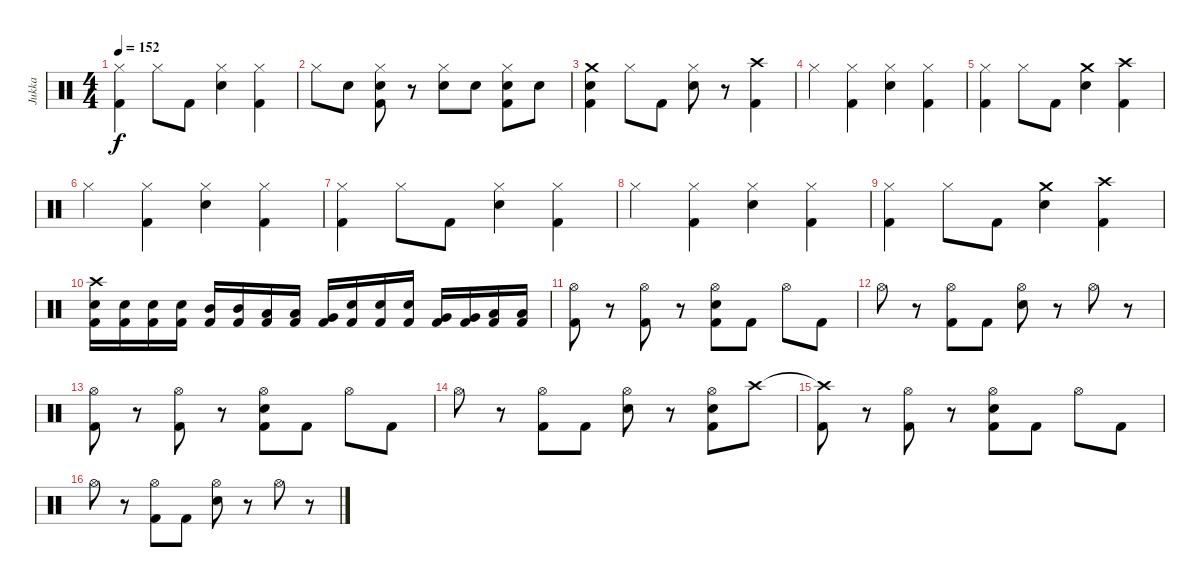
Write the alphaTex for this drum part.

\track ("Jukka" "Jukka") {instrument percussion}
\staff {score}
\articulation defaults
\ts (4 4)
\tempo 152
\clef neutral
\ks c
("Hi-Hat (closed)" "Kick (hit) 2").4{dy f} "Hi-Hat (closed)".8 "Kick (hit) 2".8 ("Hi-Hat (closed)" "Electric Snare (hit)").4 ("Hi-Hat (closed)" "Kick (hit) 2").4 |
"Hi-Hat (closed)".8 "Electric Snare (hit)".8 ("Hi-Hat (closed)" "Electric Snare (hit)" "Kick (hit) 2").8 r.8 ("Hi-Hat (closed)" "Electric Snare (hit)").8 "Electric Snare (hit)".8 ("Hi-Hat (closed)" "Electric Snare (hit)" "Kick (hit) 2").8 "Electric Snare (hit)".8 |
("Crash medium (hit)" "Electric Snare (hit)" "Kick (hit) 2").4 "Hi-Hat (closed)".8 "Kick (hit) 2".8 ("Hi-Hat (closed)" "Electric Snare (hit)").8 r.8 ("Crash high (hit)" "Kick (hit) 2").4 |
"Hi-Hat (closed)".4 ("Hi-Hat (closed)" "Kick (hit) 2").4 ("Hi-Hat (closed)" "Electric Snare (hit)").4 ("Hi-Hat (closed)" "Kick (hit) 2").4 |
("Hi-Hat (closed)" "Kick (hit) 2").4 "Hi-Hat (closed)".8 "Kick (hit) 2".8 ("Crash medium (hit)" "Electric Snare (hit)").4 ("Crash high (hit)" "Kick (hit) 2").4 |
"Hi-Hat (closed)".4 ("Hi-Hat (closed)" "Kick (hit) 2").4 ("Hi-Hat (closed)" "Electric Snare (hit)").4 ("Hi-Hat (closed)" "Kick (hit) 2").4 |
("Hi-Hat (closed)" "Kick (hit) 2").4 "Hi-Hat (closed)".8 "Kick (hit) 2".8 ("Hi-Hat (closed)" "Electric Snare (hit)").4 ("Hi-Hat (closed)" "Kick (hit) 2").4 |
"Hi-Hat (closed)".4 ("Hi-Hat (closed)" "Kick (hit) 2").4 ("Hi-Hat (closed)" "Electric Snare (hit)").4 ("Hi-Hat (closed)" "Kick (hit) 2").4 |
("Hi-Hat (closed)" "Kick (hit) 2").4 "Hi-Hat (closed)".8 "Kick (hit) 2".8 ("Crash medium (hit)" "Electric Snare (hit)").4 ("Crash high (hit)" "Kick (hit) 2").4 |
("Crash high (hit)" "Electric Snare (hit)" "Kick (hit) 2").16 ("Electric Snare (hit)" "Kick (hit) 2").16 ("Electric Snare (hit)" "Kick (hit) 2").16 ("Electric Snare (hit)" "Kick (hit) 2").16 ("Mid Tom (hit)" "Kick (hit) 2").16 ("Mid Tom (hit)" "Kick (hit) 2").16 ("Low Tom (hit)" "Kick (hit) 2").16 ("Low Tom (hit)" "Kick (hit) 2").16 ("Very Low Tom (hit)" "Kick (hit) 2").16 ("Electric Snare (hit)" "Kick (hit) 2").16 ("Electric Snare (hit)" "Kick (hit) 2").16 ("Electric Snare (hit)" "Kick (hit) 2").16 ("Very Low Tom (hit)" "Kick (hit) 2").16 ("Very Low Tom (hit)" "Kick (hit) 2").16 ("Low Floor Tom (hit)" "Kick (hit) 2").16 ("Low Floor Tom (hit)" "Kick (hit) 2").16 |
("Hi-Hat (open)" "Kick (hit) 2").8 r.8 ("Hi-Hat (open)" "Kick (hit) 2").8 r.8 ("Hi-Hat (open)" "Electric Snare (hit)" "Kick (hit) 2").8 "Kick (hit) 2".8 "Hi-Hat (open)".8 "Kick (hit) 2".8 |
"Hi-Hat (open)".8 r.8 ("Hi-Hat (open)" "Kick (hit) 2").8 "Kick (hit) 2".8 ("Hi-Hat (open)" "Electric Snare (hit)").8 r.8 "Hi-Hat (open)".8 r.8 |
("Hi-Hat (open)" "Kick (hit) 2").8 r.8 ("Hi-Hat (open)" "Kick (hit) 2").8 r.8 ("Hi-Hat (open)" "Electric Snare (hit)" "Kick (hit) 2").8 "Kick (hit) 2".8 "Hi-Hat (open)".8 "Kick (hit) 2".8 |
"Hi-Hat (open)".8 r.8 ("Hi-Hat (open)" "Kick (hit) 2").8 "Kick (hit) 2".8 ("Hi-Hat (open)" "Electric Snare (hit)").8 r.8 ("Hi-Hat (open)" "Electric Snare (hit)" "Kick (hit) 2").8 "Crash high (hit)".8 |
("Crash high (hit)"{t} "Kick (hit) 2").8 r.8 ("Hi-Hat (open)" "Kick (hit) 2").8 r.8 ("Hi-Hat (open)" "Electric Snare (hit)" "Kick (hit) 2").8 "Kick (hit) 2".8 "Hi-Hat (open)".8 "Kick (hit) 2".8 |
"Hi-Hat (open)".8 r.8 ("Hi-Hat (open)" "Kick (hit) 2").8 "Kick (hit) 2".8 ("Hi-Hat (open)" "Electric Snare (hit)").8 r.8 "Hi-Hat (open)".8 r.8
